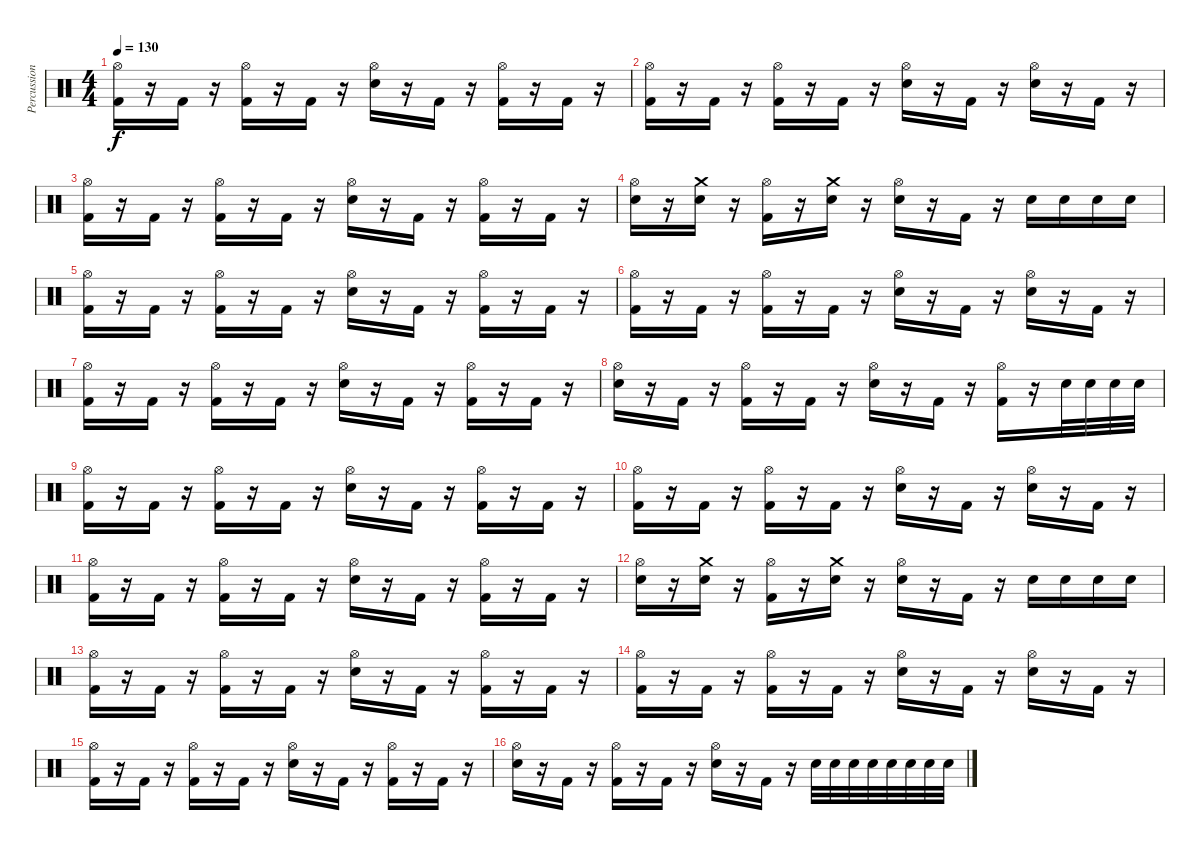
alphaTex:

\track ("Percussion" "Percussion") {instrument percussion}
\staff {score}
\articulation defaults
\ts (4 4)
\tempo 130
\clef neutral
\ks c
("Hi-Hat (open)" "Kick (hit) 2").16{dy f} r.16 "Kick (hit) 2".16 r.16 ("Hi-Hat (open)" "Kick (hit) 2").16 r.16 "Kick (hit) 2".16 r.16 ("Hi-Hat (open)" "Electric Snare (hit)").16 r.16 "Kick (hit) 2".16 r.16 ("Hi-Hat (open)" "Kick (hit) 2").16 r.16 "Kick (hit) 2".16 r.16 |
("Hi-Hat (open)" "Kick (hit) 2").16 r.16 "Kick (hit) 2".16 r.16 ("Hi-Hat (open)" "Kick (hit) 2").16 r.16 "Kick (hit) 2".16 r.16 ("Hi-Hat (open)" "Electric Snare (hit)").16 r.16 "Kick (hit) 2".16 r.16 ("Hi-Hat (open)" "Electric Snare (hit)").16 r.16 "Kick (hit) 2".16 r.16 |
("Hi-Hat (open)" "Kick (hit) 2").16 r.16 "Kick (hit) 2".16 r.16 ("Hi-Hat (open)" "Kick (hit) 2").16 r.16 "Kick (hit) 2".16 r.16 ("Hi-Hat (open)" "Electric Snare (hit)").16 r.16 "Kick (hit) 2".16 r.16 ("Hi-Hat (open)" "Kick (hit) 2").16 r.16 "Kick (hit) 2".16 r.16 |
("Hi-Hat (open)" "Electric Snare (hit)").16 r.16 ("Crash medium (hit)" "Electric Snare (hit)").16 r.16 ("Hi-Hat (open)" "Kick (hit) 2").16 r.16 ("Crash medium (hit)" "Electric Snare (hit)").16 r.16 ("Hi-Hat (open)" "Electric Snare (hit)").16 r.16 "Kick (hit) 2".16 r.16 "Electric Snare (hit)".16 "Electric Snare (hit)".16 "Electric Snare (hit)".16 "Electric Snare (hit)".16 |
("Hi-Hat (open)" "Kick (hit) 2").16 r.16 "Kick (hit) 2".16 r.16 ("Hi-Hat (open)" "Kick (hit) 2").16 r.16 "Kick (hit) 2".16 r.16 ("Hi-Hat (open)" "Electric Snare (hit)").16 r.16 "Kick (hit) 2".16 r.16 ("Hi-Hat (open)" "Kick (hit) 2").16 r.16 "Kick (hit) 2".16 r.16 |
("Hi-Hat (open)" "Kick (hit) 2").16 r.16 "Kick (hit) 2".16 r.16 ("Hi-Hat (open)" "Kick (hit) 2").16 r.16 "Kick (hit) 2".16 r.16 ("Hi-Hat (open)" "Electric Snare (hit)").16 r.16 "Kick (hit) 2".16 r.16 ("Hi-Hat (open)" "Electric Snare (hit)").16 r.16 "Kick (hit) 2".16 r.16 |
("Hi-Hat (open)" "Kick (hit) 2").16 r.16 "Kick (hit) 2".16 r.16 ("Hi-Hat (open)" "Kick (hit) 2").16 r.16 "Kick (hit) 2".16 r.16 ("Hi-Hat (open)" "Electric Snare (hit)").16 r.16 "Kick (hit) 2".16 r.16 ("Hi-Hat (open)" "Kick (hit) 2").16 r.16 "Kick (hit) 2".16 r.16 |
("Hi-Hat (open)" "Electric Snare (hit)").16 r.16 "Kick (hit) 2".16 r.16 ("Hi-Hat (open)" "Kick (hit) 2").16 r.16 "Kick (hit) 2".16 r.16 ("Hi-Hat (open)" "Electric Snare (hit)").16 r.16 "Kick (hit) 2".16 r.16 ("Hi-Hat (open)" "Kick (hit) 2").16 r.16 "Electric Snare (hit)".32 "Electric Snare (hit)".32 "Electric Snare (hit)".32 "Electric Snare (hit)".32 |
("Hi-Hat (open)" "Kick (hit) 2").16 r.16 "Kick (hit) 2".16 r.16 ("Hi-Hat (open)" "Kick (hit) 2").16 r.16 "Kick (hit) 2".16 r.16 ("Hi-Hat (open)" "Electric Snare (hit)").16 r.16 "Kick (hit) 2".16 r.16 ("Hi-Hat (open)" "Kick (hit) 2").16 r.16 "Kick (hit) 2".16 r.16 |
("Hi-Hat (open)" "Kick (hit) 2").16 r.16 "Kick (hit) 2".16 r.16 ("Hi-Hat (open)" "Kick (hit) 2").16 r.16 "Kick (hit) 2".16 r.16 ("Hi-Hat (open)" "Electric Snare (hit)").16 r.16 "Kick (hit) 2".16 r.16 ("Hi-Hat (open)" "Electric Snare (hit)").16 r.16 "Kick (hit) 2".16 r.16 |
("Hi-Hat (open)" "Kick (hit) 2").16 r.16 "Kick (hit) 2".16 r.16 ("Hi-Hat (open)" "Kick (hit) 2").16 r.16 "Kick (hit) 2".16 r.16 ("Hi-Hat (open)" "Electric Snare (hit)").16 r.16 "Kick (hit) 2".16 r.16 ("Hi-Hat (open)" "Kick (hit) 2").16 r.16 "Kick (hit) 2".16 r.16 |
("Hi-Hat (open)" "Electric Snare (hit)").16 r.16 ("Crash medium (hit)" "Electric Snare (hit)").16 r.16 ("Hi-Hat (open)" "Kick (hit) 2").16 r.16 ("Crash medium (hit)" "Electric Snare (hit)").16 r.16 ("Hi-Hat (open)" "Electric Snare (hit)").16 r.16 "Kick (hit) 2".16 r.16 "Electric Snare (hit)".16 "Electric Snare (hit)".16 "Electric Snare (hit)".16 "Electric Snare (hit)".16 |
("Hi-Hat (open)" "Kick (hit) 2").16 r.16 "Kick (hit) 2".16 r.16 ("Hi-Hat (open)" "Kick (hit) 2").16 r.16 "Kick (hit) 2".16 r.16 ("Hi-Hat (open)" "Electric Snare (hit)").16 r.16 "Kick (hit) 2".16 r.16 ("Hi-Hat (open)" "Kick (hit) 2").16 r.16 "Kick (hit) 2".16 r.16 |
("Hi-Hat (open)" "Kick (hit) 2").16 r.16 "Kick (hit) 2".16 r.16 ("Hi-Hat (open)" "Kick (hit) 2").16 r.16 "Kick (hit) 2".16 r.16 ("Hi-Hat (open)" "Electric Snare (hit)").16 r.16 "Kick (hit) 2".16 r.16 ("Hi-Hat (open)" "Electric Snare (hit)").16 r.16 "Kick (hit) 2".16 r.16 |
("Hi-Hat (open)" "Kick (hit) 2").16 r.16 "Kick (hit) 2".16 r.16 ("Hi-Hat (open)" "Kick (hit) 2").16 r.16 "Kick (hit) 2".16 r.16 ("Hi-Hat (open)" "Electric Snare (hit)").16 r.16 "Kick (hit) 2".16 r.16 ("Hi-Hat (open)" "Kick (hit) 2").16 r.16 "Kick (hit) 2".16 r.16 |
("Hi-Hat (open)" "Electric Snare (hit)").16 r.16 "Kick (hit) 2".16 r.16 ("Hi-Hat (open)" "Kick (hit) 2").16 r.16 "Kick (hit) 2".16 r.16 ("Hi-Hat (open)" "Electric Snare (hit)").16 r.16 "Kick (hit) 2".16 r.16 "Electric Snare (hit)".32 "Electric Snare (hit)".32 "Electric Snare (hit)".32 "Electric Snare (hit)".32 "Electric Snare (hit)".32 "Electric Snare (hit)".32 "Electric Snare (hit)".32 "Electric Snare (hit)".32
